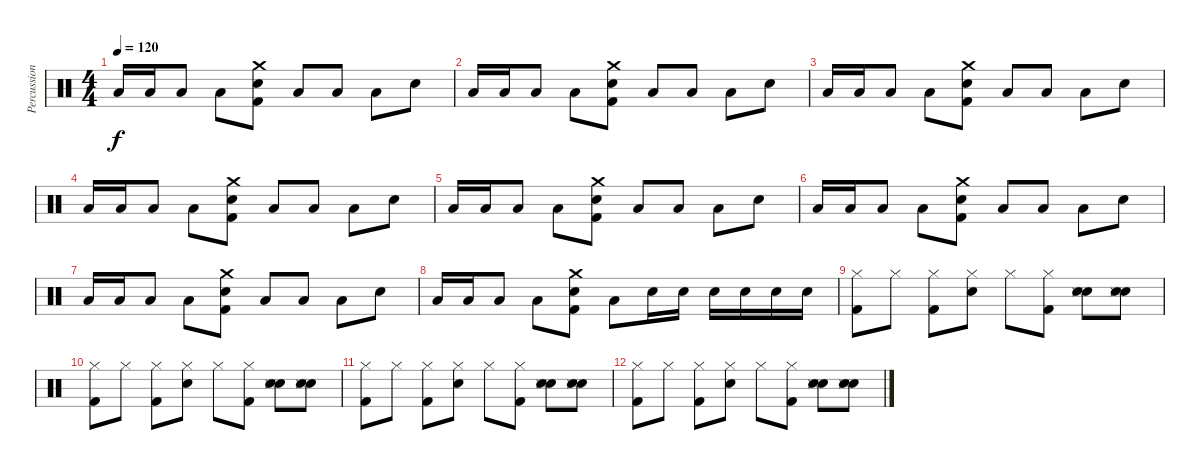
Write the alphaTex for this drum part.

\track ("Percussions" "Percussion") {instrument percussion}
\staff {score}
\articulation defaults
\ts (4 4)
\tempo 120
\clef neutral
\ks c "Low Tom (hit)".16{dy f} "Low Tom (hit)".16 "Low Tom (hit)".8 "Low Tom (hit)".8
("Crash medium (hit)" "Electric Snare (hit)" "Kick (hit) 2").8 "Low Tom (hit)".8 "Low Tom (hit)".8 "Low Tom (hit)".8 "Electric Snare (hit)".8 |
"Low Tom (hit)".16 "Low Tom (hit)".16 "Low Tom (hit)".8 "Low Tom (hit)".8 ("Crash medium (hit)" "Electric Snare (hit)" "Kick (hit) 2").8 "Low Tom (hit)".8 "Low Tom (hit)".8 "Low Tom (hit)".8 "Electric Snare (hit)".8 |
"Low Tom (hit)".16 "Low Tom (hit)".16 "Low Tom (hit)".8 "Low Tom (hit)".8 ("Crash medium (hit)" "Electric Snare (hit)" "Kick (hit) 2").8 "Low Tom (hit)".8 "Low Tom (hit)".8 "Low Tom (hit)".8 "Electric Snare (hit)".8 |
"Low Tom (hit)".16 "Low Tom (hit)".16 "Low Tom (hit)".8 "Low Tom (hit)".8 ("Crash medium (hit)" "Electric Snare (hit)" "Kick (hit) 2").8 "Low Tom (hit)".8 "Low Tom (hit)".8 "Low Tom (hit)".8 "Electric Snare (hit)".8 |
"Low Tom (hit)".16 "Low Tom (hit)".16 "Low Tom (hit)".8 "Low Tom (hit)".8 ("Crash medium (hit)" "Electric Snare (hit)" "Kick (hit) 2").8 "Low Tom (hit)".8 "Low Tom (hit)".8 "Low Tom (hit)".8 "Electric Snare (hit)".8 |
"Low Tom (hit)".16 "Low Tom (hit)".16 "Low Tom (hit)".8 "Low Tom (hit)".8 ("Crash medium (hit)" "Electric Snare (hit)" "Kick (hit) 2").8 "Low Tom (hit)".8 "Low Tom (hit)".8 "Low Tom (hit)".8 "Electric Snare (hit)".8 |
"Low Tom (hit)".16 "Low Tom (hit)".16 "Low Tom (hit)".8 "Low Tom (hit)".8 ("Crash medium (hit)" "Electric Snare (hit)" "Kick (hit) 2").8 "Low Tom (hit)".8 "Low Tom (hit)".8 "Low Tom (hit)".8 "Electric Snare (hit)".8 |
"Low Tom (hit)".16 "Low Tom (hit)".16 "Low Tom (hit)".8 "Low Tom (hit)".8 ("Crash medium (hit)" "Electric Snare (hit)" "Kick (hit) 2").8 "Low Tom (hit)".8 "Electric Snare (hit)".16 "Electric Snare (hit)".16 "Electric Snare (hit)".16 "Electric Snare (hit)".16 "Electric Snare (hit)".16 "Electric Snare (hit)".16 |
("Hi-Hat (closed)" "Kick (hit) 2").8 "Hi-Hat (closed)".8 ("Hi-Hat (closed)" "Kick (hit) 2").8 ("Hi-Hat (closed)" "Electric Snare (hit)").8 "Hi-Hat (closed)".8 ("Hi-Hat (closed)" "Kick (hit) 2").8 ("Hand Clap (hit)" "Hand Clap (hit)" "Snare (side stick) 3").8 ("Hand Clap (hit)" "Hand Clap (hit)" "Snare (side stick) 3").8 |
("Hi-Hat (closed)" "Kick (hit) 2").8 "Hi-Hat (closed)".8 ("Hi-Hat (closed)" "Kick (hit) 2").8 ("Hi-Hat (closed)" "Electric Snare (hit)").8 "Hi-Hat (closed)".8 ("Hi-Hat (closed)" "Kick (hit) 2").8 ("Hand Clap (hit)" "Hand Clap (hit)" "Snare (side stick) 3").8 ("Hand Clap (hit)" "Hand Clap (hit)" "Snare (side stick) 3").8 |
("Hi-Hat (closed)" "Kick (hit) 2").8 "Hi-Hat (closed)".8 ("Hi-Hat (closed)" "Kick (hit) 2").8 ("Hi-Hat (closed)" "Electric Snare (hit)").8 "Hi-Hat (closed)".8 ("Hi-Hat (closed)" "Kick (hit) 2").8 ("Hand Clap (hit)" "Hand Clap (hit)" "Snare (side stick) 3").8 ("Hand Clap (hit)" "Hand Clap (hit)" "Snare (side stick) 3").8 |
("Hi-Hat (closed)" "Kick (hit) 2").8 "Hi-Hat (closed)".8 ("Hi-Hat (closed)" "Kick (hit) 2").8 ("Hi-Hat (closed)" "Electric Snare (hit)").8 "Hi-Hat (closed)".8 ("Hi-Hat (closed)" "Kick (hit) 2").8 ("Hand Clap (hit)" "Hand Clap (hit)" "Snare (side stick) 3").8 ("Hand Clap (hit)" "Hand Clap (hit)" "Snare (side stick) 3").8
